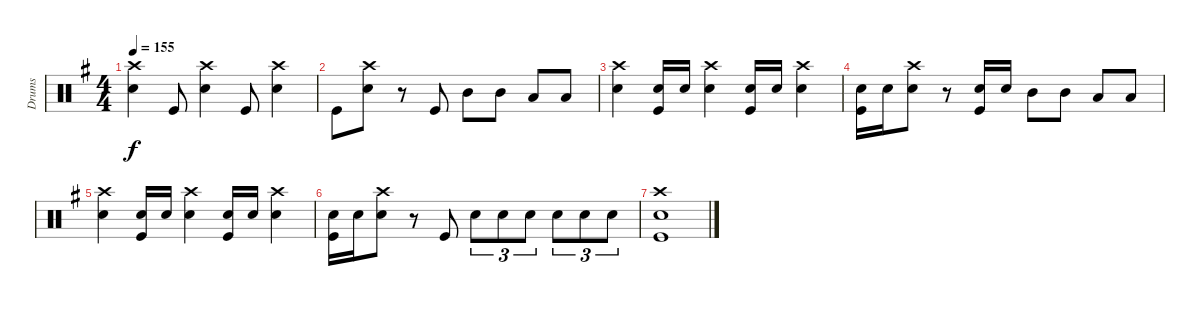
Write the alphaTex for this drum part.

\track ("Drums" "Drums") {instrument percussion}
\staff {score}
\articulation defaults
\ts (4 4)
\tempo 155
\clef neutral
\ks g
("Crash high (hit)" "Snare (hit) 2").4{dy f} "Kick (hit)".8 ("Crash high (hit)" "Snare (hit) 2").4 "Kick (hit)".8 ("Crash high (hit)" "Snare (hit) 2").4 |
"Kick (hit)".8 ("Crash high (hit)" "Snare (hit) 2").8 r.8 "Kick (hit)".8 "Mid Tom (hit)".8 "Mid Tom (hit)".8 "Low Tom (hit)".8 "Low Tom (hit)".8 |
("Crash high (hit)" "Snare (hit) 2").4 ("Snare (hit) 2" "Kick (hit)").16 "Snare (hit) 2".16 ("Crash high (hit)" "Snare (hit) 2").4 ("Snare (hit) 2" "Kick (hit)").16 "Snare (hit) 2".16 ("Crash high (hit)" "Snare (hit) 2").4 |
("Snare (hit) 2" "Kick (hit)").16 "Snare (hit) 2".16 ("Crash high (hit)" "Snare (hit) 2").8 r.8 ("Snare (hit) 2" "Kick (hit)").16 "Snare (hit) 2".16 "Mid Tom (hit)".8 "Mid Tom (hit)".8 "Low Tom (hit)".8 "Low Tom (hit)".8 |
("Crash high (hit)" "Snare (hit) 2").4 ("Snare (hit) 2" "Kick (hit)").16 "Snare (hit) 2".16 ("Crash high (hit)" "Snare (hit) 2").4 ("Snare (hit) 2" "Kick (hit)").16 "Snare (hit) 2".16 ("Crash high (hit)" "Snare (hit) 2").4 |
("Snare (hit) 2" "Kick (hit)").16 "Snare (hit) 2".16 ("Crash high (hit)" "Snare (hit) 2").8 r.8 "Kick (hit)".8 "Snare (hit) 2".8{tu (3 2)} "Snare (hit) 2".8{tu (3 2)} "Snare (hit) 2".8{tu (3 2)} "Snare (hit) 2".8{tu (3 2)} "Snare (hit) 2".8{tu (3 2)} "Snare (hit) 2".8{tu (3 2)} |
("Crash high (hit)" "Snare (hit) 2" "Kick (hit)").1
